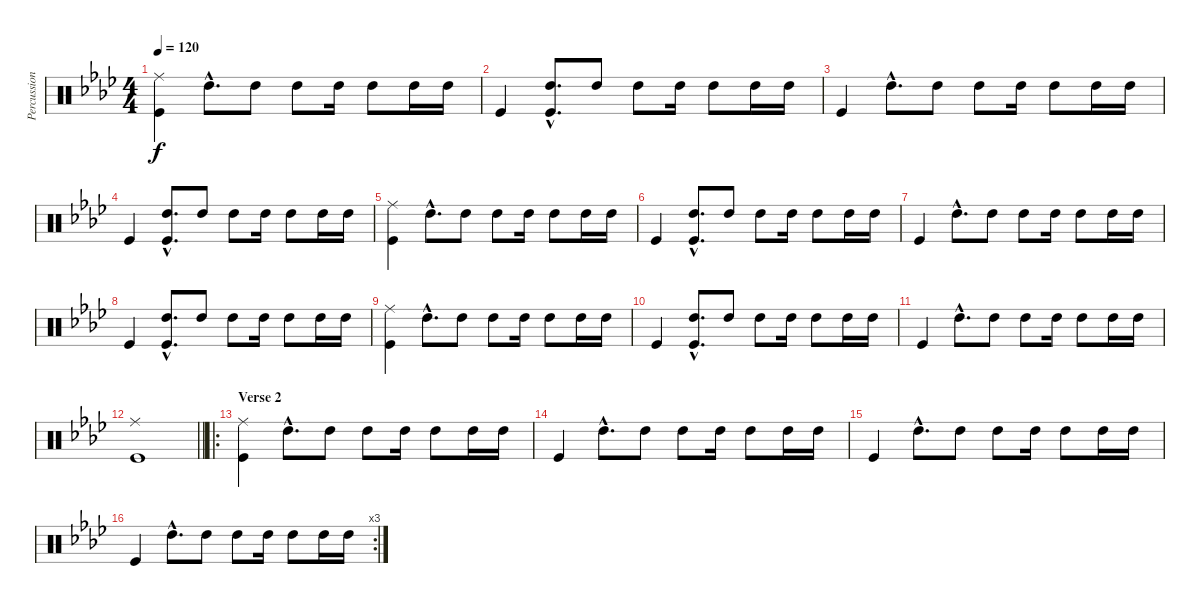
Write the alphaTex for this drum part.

\track ("Percussion" "Percussion") {instrument percussion}
\staff {score}
\articulation defaults
\ts (4 4)
\tempo 120
\clef neutral
\ks fminor
("Ride (middle)" "Kick (hit)").4{dy f} "High Tom (hit)"{hac}.8{d} "High Tom (hit)".8 "High Tom (hit)".8 "High Tom (hit)".16 "High Tom (hit)".8 "High Tom (hit)".16 "High Tom (hit)".16 |
"Kick (hit)".4 ("High Tom (hit)"{hac} "Kick (hit)"{hac}).8{d} "High Tom (hit)".8 "High Tom (hit)".8 "High Tom (hit)".16 "High Tom (hit)".8 "High Tom (hit)".16 "High Tom (hit)".16 |
"Kick (hit)".4 "High Tom (hit)"{hac}.8{d} "High Tom (hit)".8 "High Tom (hit)".8 "High Tom (hit)".16 "High Tom (hit)".8 "High Tom (hit)".16 "High Tom (hit)".16 |
"Kick (hit)".4 ("High Tom (hit)"{hac} "Kick (hit)"{hac}).8{d} "High Tom (hit)".8 "High Tom (hit)".8 "High Tom (hit)".16 "High Tom (hit)".8 "High Tom (hit)".16 "High Tom (hit)".16 |
("Ride (middle)" "Kick (hit)").4 "High Tom (hit)"{hac}.8{d} "High Tom (hit)".8 "High Tom (hit)".8 "High Tom (hit)".16 "High Tom (hit)".8 "High Tom (hit)".16 "High Tom (hit)".16 |
"Kick (hit)".4 ("High Tom (hit)"{hac} "Kick (hit)"{hac}).8{d} "High Tom (hit)".8 "High Tom (hit)".8 "High Tom (hit)".16 "High Tom (hit)".8 "High Tom (hit)".16 "High Tom (hit)".16 |
"Kick (hit)".4 "High Tom (hit)"{hac}.8{d} "High Tom (hit)".8 "High Tom (hit)".8 "High Tom (hit)".16 "High Tom (hit)".8 "High Tom (hit)".16 "High Tom (hit)".16 |
"Kick (hit)".4 ("High Tom (hit)"{hac} "Kick (hit)"{hac}).8{d} "High Tom (hit)".8 "High Tom (hit)".8 "High Tom (hit)".16 "High Tom (hit)".8 "High Tom (hit)".16 "High Tom (hit)".16 |
("Ride (middle)" "Kick (hit)").4 "High Tom (hit)"{hac}.8{d} "High Tom (hit)".8 "High Tom (hit)".8 "High Tom (hit)".16 "High Tom (hit)".8 "High Tom (hit)".16 "High Tom (hit)".16 |
"Kick (hit)".4 ("High Tom (hit)"{hac} "Kick (hit)"{hac}).8{d} "High Tom (hit)".8 "High Tom (hit)".8 "High Tom (hit)".16 "High Tom (hit)".8 "High Tom (hit)".16 "High Tom (hit)".16 |
"Kick (hit)".4 "High Tom (hit)"{hac}.8{d} "High Tom (hit)".8 "High Tom (hit)".8 "High Tom (hit)".16 "High Tom (hit)".8 "High Tom (hit)".16 "High Tom (hit)".16 |
\barLineRight lightlight
("Ride (middle)" "Kick (hit)").1 |
\ro
\section ("" "Verse 2")
("Ride (middle)" "Kick (hit)").4 "High Tom (hit)"{hac}.8{d} "High Tom (hit)".8 "High Tom (hit)".8 "High Tom (hit)".16 "High Tom (hit)".8 "High Tom (hit)".16 "High Tom (hit)".16 |
"Kick (hit)".4 "High Tom (hit)"{hac}.8{d} "High Tom (hit)".8 "High Tom (hit)".8 "High Tom (hit)".16 "High Tom (hit)".8 "High Tom (hit)".16 "High Tom (hit)".16 |
"Kick (hit)".4 "High Tom (hit)"{hac}.8{d} "High Tom (hit)".8 "High Tom (hit)".8 "High Tom (hit)".16 "High Tom (hit)".8 "High Tom (hit)".16 "High Tom (hit)".16 |
\rc 3 "Kick (hit)".4 "High Tom (hit)"{hac}.8{d} "High Tom (hit)".8 "High Tom (hit)".8 "High Tom (hit)".16 "High Tom (hit)".8 "High Tom (hit)".16 "High Tom (hit)".16
